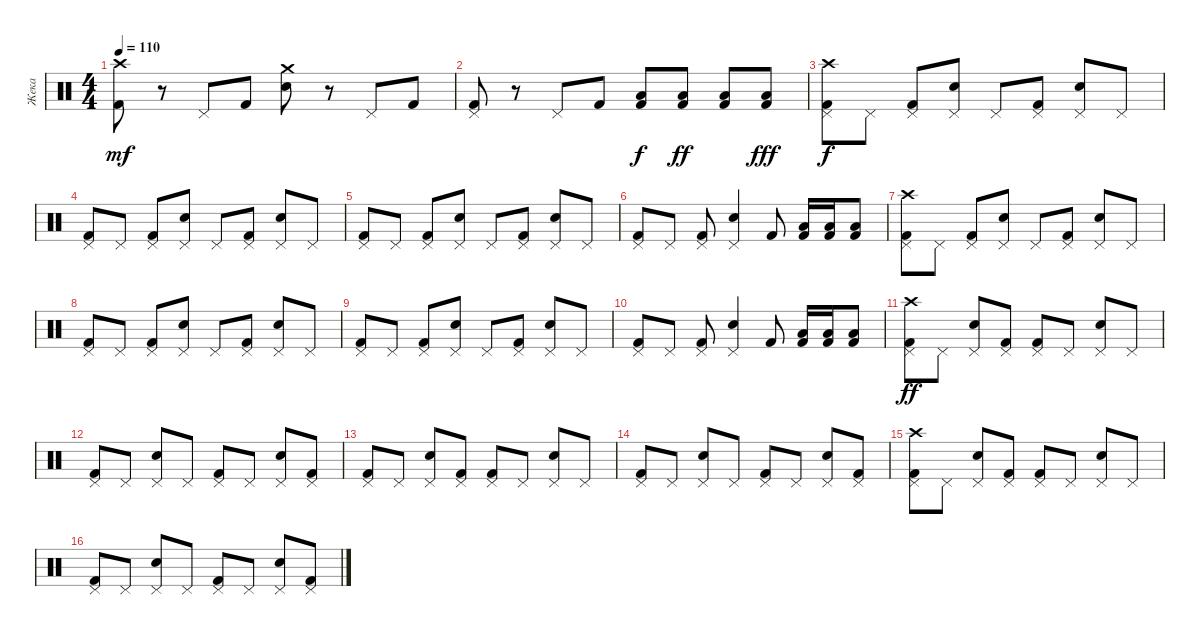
\track ("Жека" "Жека") {instrument percussion}
\staff {score}
\articulation defaults
\ts (4 4)
\tempo 110
\clef neutral
\ks c
("Crash high (hit)" "Kick (hit) 2").8{dy mf} r.8 "Pedal Hi-Hat (hit)".8 "Kick (hit) 2".8 ("Crash medium (hit)" "Snare (hit) 2").8 r.8 "Pedal Hi-Hat (hit)".8 "Kick (hit) 2".8 |
("Pedal Hi-Hat (hit)" "Kick (hit) 2").8 r.8 "Pedal Hi-Hat (hit)".8 "Kick (hit) 2".8 ("Low Tom (hit)" "Kick (hit) 2").8{dy f} ("Low Tom (hit)" "Kick (hit) 2").8{dy ff} ("Low Floor Tom (hit)" "Kick (hit) 2").8 ("Low Floor Tom (hit)" "Kick (hit) 2").8{dy fff} |
("Pedal Hi-Hat (hit)" "Kick (hit) 2" "Crash high (hit)").8{dy f} "Pedal Hi-Hat (hit)".8 ("Pedal Hi-Hat (hit)" "Kick (hit) 2").8 ("Pedal Hi-Hat (hit)" "Snare (hit) 2").8 "Pedal Hi-Hat (hit)".8 ("Pedal Hi-Hat (hit)" "Kick (hit) 2").8 ("Pedal Hi-Hat (hit)" "Snare (hit) 2").8 "Pedal Hi-Hat (hit)".8 |
("Pedal Hi-Hat (hit)" "Kick (hit) 2").8 "Pedal Hi-Hat (hit)".8 ("Pedal Hi-Hat (hit)" "Kick (hit) 2").8 ("Pedal Hi-Hat (hit)" "Snare (hit) 2").8 "Pedal Hi-Hat (hit)".8 ("Pedal Hi-Hat (hit)" "Kick (hit) 2").8 ("Pedal Hi-Hat (hit)" "Snare (hit) 2").8 "Pedal Hi-Hat (hit)".8 |
("Pedal Hi-Hat (hit)" "Kick (hit) 2").8 "Pedal Hi-Hat (hit)".8 ("Pedal Hi-Hat (hit)" "Kick (hit) 2").8 ("Pedal Hi-Hat (hit)" "Snare (hit) 2").8 "Pedal Hi-Hat (hit)".8 ("Pedal Hi-Hat (hit)" "Kick (hit) 2").8 ("Pedal Hi-Hat (hit)" "Snare (hit) 2").8 "Pedal Hi-Hat (hit)".8 |
("Pedal Hi-Hat (hit)" "Kick (hit) 2").8 "Pedal Hi-Hat (hit)".8 ("Pedal Hi-Hat (hit)" "Kick (hit) 2").8 ("Pedal Hi-Hat (hit)" "Snare (hit) 2").4 "Kick (hit) 2".8 ("Low Tom (hit)" "Kick (hit) 2").16 ("Low Tom (hit)" "Kick (hit) 2").16 ("Low Floor Tom (hit)" "Kick (hit) 2").8 |
("Pedal Hi-Hat (hit)" "Kick (hit) 2" "Crash high (hit)").8 "Pedal Hi-Hat (hit)".8 ("Pedal Hi-Hat (hit)" "Kick (hit) 2").8 ("Pedal Hi-Hat (hit)" "Snare (hit) 2").8 "Pedal Hi-Hat (hit)".8 ("Pedal Hi-Hat (hit)" "Kick (hit) 2").8 ("Pedal Hi-Hat (hit)" "Snare (hit) 2").8 "Pedal Hi-Hat (hit)".8 |
("Pedal Hi-Hat (hit)" "Kick (hit) 2").8 "Pedal Hi-Hat (hit)".8 ("Pedal Hi-Hat (hit)" "Kick (hit) 2").8 ("Pedal Hi-Hat (hit)" "Snare (hit) 2").8 "Pedal Hi-Hat (hit)".8 ("Pedal Hi-Hat (hit)" "Kick (hit) 2").8 ("Pedal Hi-Hat (hit)" "Snare (hit) 2").8 "Pedal Hi-Hat (hit)".8 |
("Pedal Hi-Hat (hit)" "Kick (hit) 2").8 "Pedal Hi-Hat (hit)".8 ("Pedal Hi-Hat (hit)" "Kick (hit) 2").8 ("Pedal Hi-Hat (hit)" "Snare (hit) 2").8 "Pedal Hi-Hat (hit)".8 ("Pedal Hi-Hat (hit)" "Kick (hit) 2").8 ("Pedal Hi-Hat (hit)" "Snare (hit) 2").8 "Pedal Hi-Hat (hit)".8 |
("Pedal Hi-Hat (hit)" "Kick (hit) 2").8 "Pedal Hi-Hat (hit)".8 ("Pedal Hi-Hat (hit)" "Kick (hit) 2").8 ("Pedal Hi-Hat (hit)" "Snare (hit) 2").4 "Kick (hit) 2".8 ("Low Tom (hit)" "Kick (hit) 2").16 ("Low Tom (hit)" "Kick (hit) 2").16 ("Low Floor Tom (hit)" "Kick (hit) 2").8 |
("Pedal Hi-Hat (hit)" "Kick (hit) 2" "Crash high (hit)").8{dy ff} "Pedal Hi-Hat (hit)".8 ("Pedal Hi-Hat (hit)" "Snare (hit) 2").8 ("Pedal Hi-Hat (hit)" "Kick (hit) 2").8 ("Pedal Hi-Hat (hit)" "Kick (hit) 2").8 "Pedal Hi-Hat (hit)".8 ("Pedal Hi-Hat (hit)" "Snare (hit) 2").8 "Pedal Hi-Hat (hit)".8 |
("Pedal Hi-Hat (hit)" "Kick (hit) 2").8 "Pedal Hi-Hat (hit)".8 ("Pedal Hi-Hat (hit)" "Snare (hit) 2").8 "Pedal Hi-Hat (hit)".8 ("Pedal Hi-Hat (hit)" "Kick (hit) 2").8 "Pedal Hi-Hat (hit)".8 ("Pedal Hi-Hat (hit)" "Snare (hit) 2").8 ("Pedal Hi-Hat (hit)" "Kick (hit) 2").8 |
("Pedal Hi-Hat (hit)" "Kick (hit) 2").8 "Pedal Hi-Hat (hit)".8 ("Pedal Hi-Hat (hit)" "Snare (hit) 2").8 ("Pedal Hi-Hat (hit)" "Kick (hit) 2").8 ("Pedal Hi-Hat (hit)" "Kick (hit) 2").8 "Pedal Hi-Hat (hit)".8 ("Pedal Hi-Hat (hit)" "Snare (hit) 2").8 "Pedal Hi-Hat (hit)".8 |
("Pedal Hi-Hat (hit)" "Kick (hit) 2").8 "Pedal Hi-Hat (hit)".8 ("Pedal Hi-Hat (hit)" "Snare (hit) 2").8 "Pedal Hi-Hat (hit)".8 ("Pedal Hi-Hat (hit)" "Kick (hit) 2").8 "Pedal Hi-Hat (hit)".8 ("Pedal Hi-Hat (hit)" "Snare (hit) 2").8 ("Pedal Hi-Hat (hit)" "Kick (hit) 2").8 |
("Pedal Hi-Hat (hit)" "Kick (hit) 2" "Crash high (hit)").8 "Pedal Hi-Hat (hit)".8 ("Pedal Hi-Hat (hit)" "Snare (hit) 2").8 ("Pedal Hi-Hat (hit)" "Kick (hit) 2").8 ("Pedal Hi-Hat (hit)" "Kick (hit) 2").8 "Pedal Hi-Hat (hit)".8 ("Pedal Hi-Hat (hit)" "Snare (hit) 2").8 "Pedal Hi-Hat (hit)".8 |
("Pedal Hi-Hat (hit)" "Kick (hit) 2").8 "Pedal Hi-Hat (hit)".8 ("Pedal Hi-Hat (hit)" "Snare (hit) 2").8 "Pedal Hi-Hat (hit)".8 ("Pedal Hi-Hat (hit)" "Kick (hit) 2").8 "Pedal Hi-Hat (hit)".8 ("Pedal Hi-Hat (hit)" "Snare (hit) 2").8 ("Pedal Hi-Hat (hit)" "Kick (hit) 2").8
